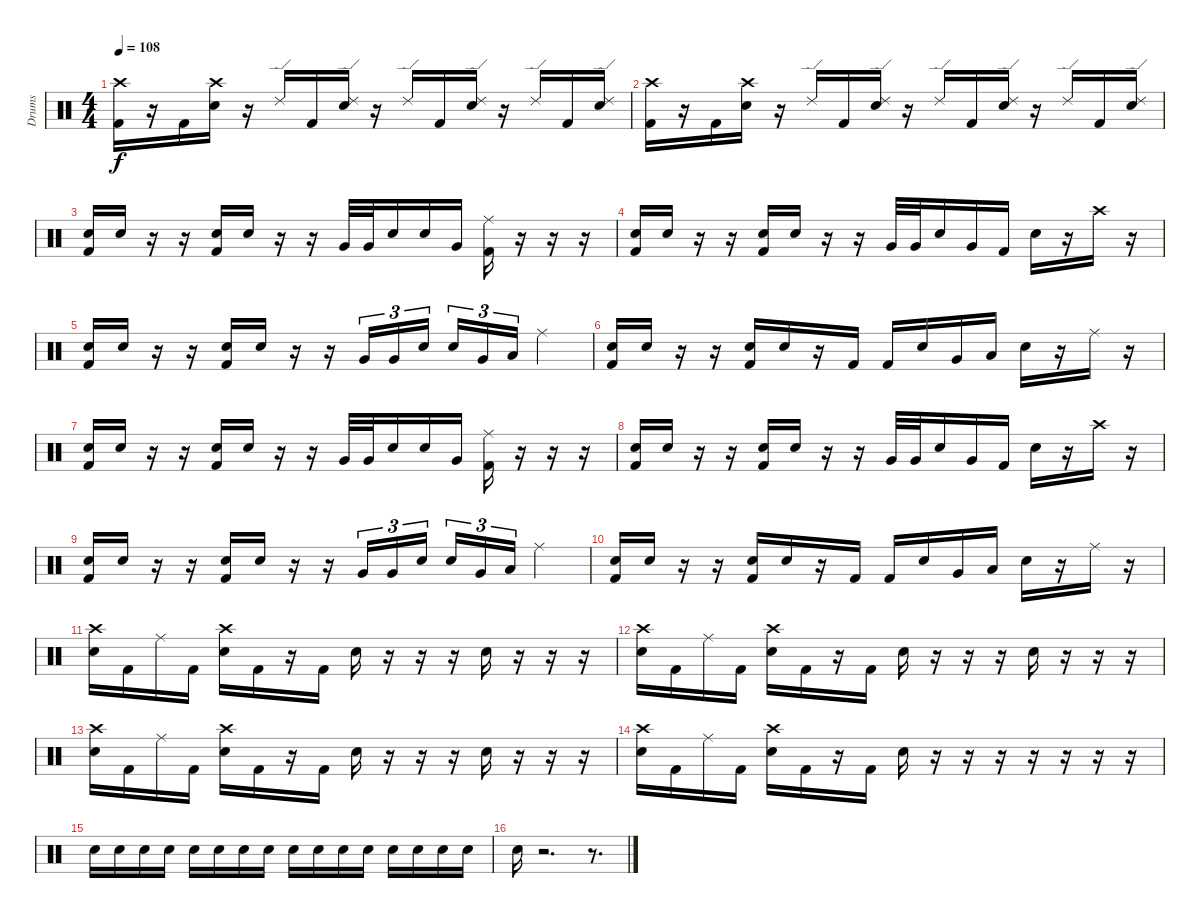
\track ("Drums" "Drums") {instrument percussion}
\staff {score}
\articulation defaults
\ts (4 4)
\tempo 108
\clef neutral
\ks c
("Crash high (hit)" "Kick (hit) 2").16{dy f} r.16 "Kick (hit) 2".16 ("Crash high (hit)" "Electric Snare (hit)").16 r.16 "Ride (edge) 2".16 "Kick (hit) 2".16 ("Ride (edge) 2" "Electric Snare (hit)").16 r.16 "Ride (edge) 2".16 "Kick (hit) 2".16 ("Ride (edge) 2" "Electric Snare (hit)").16 r.16 "Ride (edge) 2".16 "Kick (hit) 2".16 ("Ride (edge) 2" "Electric Snare (hit)").16 |
("Crash high (hit)" "Kick (hit) 2").16 r.16 "Kick (hit) 2".16 ("Crash high (hit)" "Electric Snare (hit)").16 r.16 "Ride (edge) 2".16 "Kick (hit) 2".16 ("Ride (edge) 2" "Electric Snare (hit)").16 r.16 "Ride (edge) 2".16 "Kick (hit) 2".16 ("Ride (edge) 2" "Electric Snare (hit)").16 r.16 "Ride (edge) 2".16 "Kick (hit) 2".16 ("Ride (edge) 2" "Electric Snare (hit)").16 |
("Electric Snare (hit)" "Kick (hit) 2").16 "Electric Snare (hit)".16 r.16 r.16 ("Electric Snare (hit)" "Kick (hit) 2").16 "Electric Snare (hit)".16 r.16 r.16 "Very Low Tom (hit)".32 "Very Low Tom (hit)".32 "Electric Snare (hit)".16 "Electric Snare (hit)".16 "Very Low Tom (hit)".16 ("Ride (middle)" "Kick (hit) 2").16 r.16 r.16 r.16 |
("Electric Snare (hit)" "Kick (hit) 2").16 "Electric Snare (hit)".16 r.16 r.16 ("Electric Snare (hit)" "Kick (hit) 2").16 "Electric Snare (hit)".16 r.16 r.16 "Very Low Tom (hit)".32 "Very Low Tom (hit)".32 "Electric Snare (hit)".16 "Very Low Tom (hit)".16 "Kick (hit) 2".16 "Electric Snare (hit)".16 r.16 "Crash high (hit)".16 r.16 |
("Electric Snare (hit)" "Kick (hit) 2").16 "Electric Snare (hit)".16 r.16 r.16 ("Electric Snare (hit)" "Kick (hit) 2").16 "Electric Snare (hit)".16 r.16 r.16 "Very Low Tom (hit)".16{tu (3 2)} "Very Low Tom (hit)".16{tu (3 2)} "Electric Snare (hit)".16{tu (3 2) beam splitsecondary} "Electric Snare (hit)".16{tu (3 2)} "Very Low Tom (hit)".16{tu (3 2)} "Low Floor Tom (hit)".16{tu (3 2)} "Ride (middle)".4 |
("Electric Snare (hit)" "Kick (hit) 2").16 "Electric Snare (hit)".16 r.16 r.16 ("Electric Snare (hit)" "Kick (hit) 2").16 "Electric Snare (hit)".16 r.16 "Kick (hit) 2".16 "Kick (hit) 2".16 "Electric Snare (hit)".16 "Very Low Tom (hit)".16 "Low Floor Tom (hit)".16 "Electric Snare (hit)".16 r.16 "Ride (middle)".16 r.16 |
("Electric Snare (hit)" "Kick (hit) 2").16 "Electric Snare (hit)".16 r.16 r.16 ("Electric Snare (hit)" "Kick (hit) 2").16 "Electric Snare (hit)".16 r.16 r.16 "Very Low Tom (hit)".32 "Very Low Tom (hit)".32 "Electric Snare (hit)".16 "Electric Snare (hit)".16 "Very Low Tom (hit)".16 ("Ride (middle)" "Kick (hit) 2").16 r.16 r.16 r.16 |
("Electric Snare (hit)" "Kick (hit) 2").16 "Electric Snare (hit)".16 r.16 r.16 ("Electric Snare (hit)" "Kick (hit) 2").16 "Electric Snare (hit)".16 r.16 r.16 "Very Low Tom (hit)".32 "Very Low Tom (hit)".32 "Electric Snare (hit)".16 "Very Low Tom (hit)".16 "Kick (hit) 2".16 "Electric Snare (hit)".16 r.16 "Crash high (hit)".16 r.16 |
("Electric Snare (hit)" "Kick (hit) 2").16 "Electric Snare (hit)".16 r.16 r.16 ("Electric Snare (hit)" "Kick (hit) 2").16 "Electric Snare (hit)".16 r.16 r.16 "Very Low Tom (hit)".16{tu (3 2)} "Very Low Tom (hit)".16{tu (3 2)} "Electric Snare (hit)".16{tu (3 2) beam splitsecondary} "Electric Snare (hit)".16{tu (3 2)} "Very Low Tom (hit)".16{tu (3 2)} "Low Floor Tom (hit)".16{tu (3 2)} "Ride (middle)".4 |
("Electric Snare (hit)" "Kick (hit) 2").16 "Electric Snare (hit)".16 r.16 r.16 ("Electric Snare (hit)" "Kick (hit) 2").16 "Electric Snare (hit)".16 r.16 "Kick (hit) 2".16 "Kick (hit) 2".16 "Electric Snare (hit)".16 "Very Low Tom (hit)".16 "Low Floor Tom (hit)".16 "Electric Snare (hit)".16 r.16 "Ride (middle)".16 r.16 |
("Crash high (hit)" "Electric Snare (hit)").16 "Kick (hit) 2".16 "Ride (middle)".16 "Kick (hit) 2".16 ("Crash high (hit)" "Electric Snare (hit)").16 "Kick (hit) 2".16 r.16 "Kick (hit) 2".16 "Electric Snare (hit)".16 r.16 r.16 r.16 "Electric Snare (hit)".16 r.16 r.16 r.16 |
("Crash high (hit)" "Electric Snare (hit)").16 "Kick (hit) 2".16 "Ride (middle)".16 "Kick (hit) 2".16 ("Crash high (hit)" "Electric Snare (hit)").16 "Kick (hit) 2".16 r.16 "Kick (hit) 2".16 "Electric Snare (hit)".16 r.16 r.16 r.16 "Electric Snare (hit)".16 r.16 r.16 r.16 |
("Crash high (hit)" "Electric Snare (hit)").16 "Kick (hit) 2".16 "Ride (middle)".16 "Kick (hit) 2".16 ("Crash high (hit)" "Electric Snare (hit)").16 "Kick (hit) 2".16 r.16 "Kick (hit) 2".16 "Electric Snare (hit)".16 r.16 r.16 r.16 "Electric Snare (hit)".16 r.16 r.16 r.16 |
("Crash high (hit)" "Electric Snare (hit)").16 "Kick (hit) 2".16 "Ride (middle)".16 "Kick (hit) 2".16 ("Crash high (hit)" "Electric Snare (hit)").16 "Kick (hit) 2".16 r.16 "Kick (hit) 2".16 "Electric Snare (hit)".16 r.16 r.16 r.16 r.16 r.16 r.16 r.16 |
"Electric Snare (hit)".16 "Electric Snare (hit)".16 "Electric Snare (hit)".16 "Electric Snare (hit)".16 "Electric Snare (hit)".16 "Electric Snare (hit)".16 "Electric Snare (hit)".16 "Electric Snare (hit)".16 "Electric Snare (hit)".16 "Electric Snare (hit)".16 "Electric Snare (hit)".16 "Electric Snare (hit)".16 "Electric Snare (hit)".16 "Electric Snare (hit)".16 "Electric Snare (hit)".16 "Electric Snare (hit)".16 |
"Electric Snare (hit)".16 r.2{d} r.8{d}
